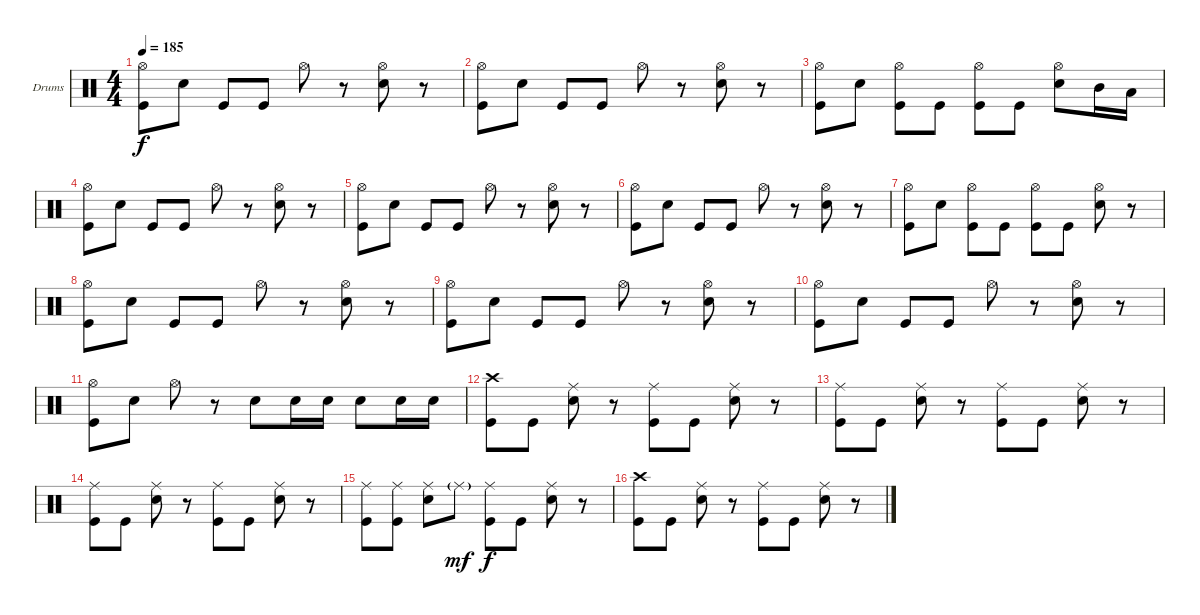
\defaultSystemsLayout 4
\bracketExtendMode nobrackets
\firstSystemTrackNameOrientation horizontal
\otherSystemsTrackNameOrientation horizontal
\track ("Drumkit" "Drums") {instrument percussion}
\staff {score}
\articulation defaults
\ts (4 4)
\tempo 185
\clef neutral
\ks c
("Hi-Hat (open)" "Kick (hit)").8{dy f} "Snare (hit) 2".8 "Kick (hit)".8 "Kick (hit)".8 "Hi-Hat (open)".8 r.8 ("Hi-Hat (open)" "Snare (hit) 2").8 r.8 |
("Hi-Hat (open)" "Kick (hit)").8 "Snare (hit) 2".8 "Kick (hit)".8 "Kick (hit)".8 "Hi-Hat (open)".8 r.8 ("Hi-Hat (open)" "Snare (hit) 2").8 r.8 |
("Hi-Hat (open)" "Kick (hit)").8 "Snare (hit) 2".8 ("Hi-Hat (open)" "Kick (hit)").8 "Kick (hit)".8 ("Hi-Hat (open)" "Kick (hit)").8 "Kick (hit)".8 ("Hi-Hat (open)" "Snare (hit) 2").8 "Mid Tom (hit)".16 "Low Tom (hit)".16 |
("Hi-Hat (open)" "Kick (hit)").8 "Snare (hit) 2".8 "Kick (hit)".8 "Kick (hit)".8 "Hi-Hat (open)".8 r.8 ("Hi-Hat (open)" "Snare (hit) 2").8 r.8 |
("Hi-Hat (open)" "Kick (hit)").8 "Snare (hit) 2".8 "Kick (hit)".8 "Kick (hit)".8 "Hi-Hat (open)".8 r.8 ("Hi-Hat (open)" "Snare (hit) 2").8 r.8 |
("Hi-Hat (open)" "Kick (hit)").8 "Snare (hit) 2".8 "Kick (hit)".8 "Kick (hit)".8 "Hi-Hat (open)".8 r.8 ("Hi-Hat (open)" "Snare (hit) 2").8 r.8 |
("Hi-Hat (open)" "Kick (hit)").8 "Snare (hit) 2".8 ("Hi-Hat (open)" "Kick (hit)").8 "Kick (hit)".8 ("Hi-Hat (open)" "Kick (hit)").8 "Kick (hit)".8 ("Hi-Hat (open)" "Snare (hit) 2").8 r.8 |
("Hi-Hat (open)" "Kick (hit)").8 "Snare (hit) 2".8 "Kick (hit)".8 "Kick (hit)".8 "Hi-Hat (open)".8 r.8 ("Hi-Hat (open)" "Snare (hit) 2").8 r.8 |
("Hi-Hat (open)" "Kick (hit)").8 "Snare (hit) 2".8 "Kick (hit)".8 "Kick (hit)".8 "Hi-Hat (open)".8 r.8 ("Hi-Hat (open)" "Snare (hit) 2").8 r.8 |
("Hi-Hat (open)" "Kick (hit)").8 "Snare (hit) 2".8 "Kick (hit)".8 "Kick (hit)".8 "Hi-Hat (open)".8 r.8 ("Hi-Hat (open)" "Snare (hit) 2").8 r.8 |
("Hi-Hat (open)" "Kick (hit)").8 "Snare (hit) 2".8 "Hi-Hat (open)".8 r.8 "Snare (hit) 2".8 "Snare (hit) 2".16 "Snare (hit) 2".16 "Snare (hit) 2".8 "Snare (hit) 2".16 "Snare (hit) 2".16 |
("Crash high (hit)" "Kick (hit)").8 "Kick (hit)".8 ("Ride (middle)" "Snare (hit) 2").8 r.8 ("Ride (middle)" "Kick (hit)").8 "Kick (hit)".8 ("Ride (middle)" "Snare (hit) 2").8 r.8 |
("Ride (middle)" "Kick (hit)").8 "Kick (hit)".8 ("Ride (middle)" "Snare (hit) 2").8 r.8 ("Ride (middle)" "Kick (hit)").8 "Kick (hit)".8 ("Ride (middle)" "Snare (hit) 2").8 r.8 |
("Ride (middle)" "Kick (hit)").8 "Kick (hit)".8 ("Ride (middle)" "Snare (hit) 2").8 r.8 ("Ride (middle)" "Kick (hit)").8 "Kick (hit)".8 ("Ride (middle)" "Snare (hit) 2").8 r.8 |
("Ride (middle)" "Kick (hit)").8 ("Ride (middle)" "Kick (hit)").8 ("Ride (middle)" "Snare (hit) 2").8 "Ride (middle)"{g}.8{dy mf} ("Ride (middle)" "Kick (hit)").8{dy f} "Kick (hit)".8 ("Ride (middle)" "Snare (hit) 2").8 r.8 |
("Crash high (hit)" "Kick (hit)").8 "Kick (hit)".8 ("Ride (middle)" "Snare (hit) 2").8 r.8 ("Ride (middle)" "Kick (hit)").8 "Kick (hit)".8 ("Ride (middle)" "Snare (hit) 2").8 r.8
